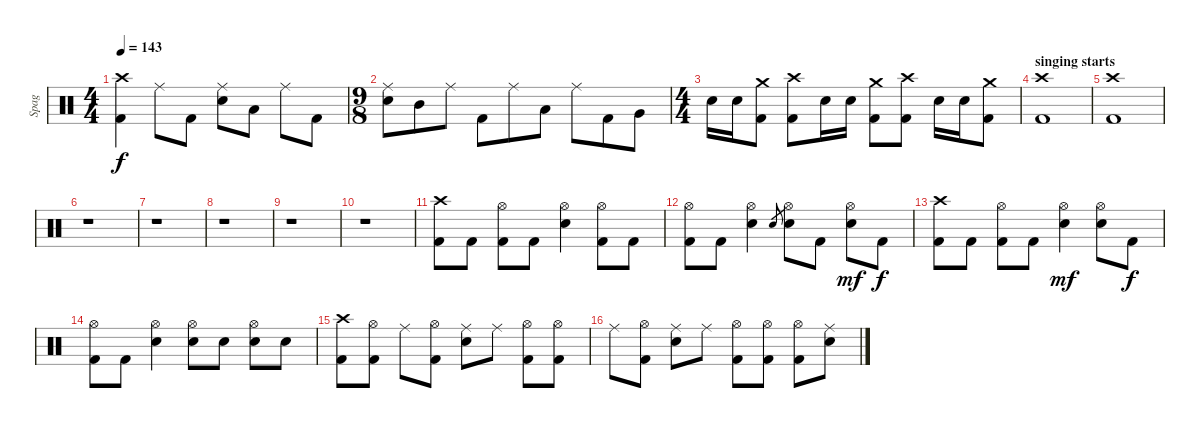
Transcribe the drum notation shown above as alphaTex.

\track ("Spag" "Spag") {instrument percussion}
\staff {score}
\articulation defaults
\ts (4 4)
\tempo 143
\clef neutral
\ks c
("Crash high (hit)" "Kick (hit) 2").4{dy f} "Ride (middle)".8 "Kick (hit) 2".8 ("Ride (middle)" "Electric Snare (hit)").8 "Low Tom (hit)".8 "Ride (middle)".8 "Kick (hit) 2".8 |
\ts (9 8)
("Ride (middle)" "Electric Snare (hit)").8 "Mid Tom (hit)".8 "Ride (middle)".8 "Kick (hit) 2".8 "Ride (middle)".8 "Low Tom (hit)".8 "Ride (middle)".8 "Kick (hit) 2".8 "Very Low Tom (hit)".8 |
\ts (4 4)
"Electric Snare (hit)".16 "Electric Snare (hit)".16 ("Crash medium (hit)" "Kick (hit) 2").8 ("Crash high (hit)" "Kick (hit) 2").8 "Electric Snare (hit)".16 "Electric Snare (hit)".16 ("Crash medium (hit)" "Kick (hit) 2").8 ("Crash high (hit)" "Kick (hit) 2").8 "Electric Snare (hit)".16 "Electric Snare (hit)".16 ("Crash medium (hit)" "Kick (hit) 2").8 |
\section ("" "singing starts")
("Crash high (hit)" "Kick (hit) 2").1 |
("Crash high (hit)" "Kick (hit) 2").1 |
r.1 |
r.1 |
r.1 |
r.1 |
r.1 |
("Crash high (hit)" "Kick (hit) 2").8 "Kick (hit) 2".8 ("Hi-Hat (open)" "Kick (hit) 2").8 "Kick (hit) 2".8 ("Hi-Hat (open)" "Electric Snare (hit)").4 ("Hi-Hat (open)" "Kick (hit) 2").8 "Kick (hit) 2".8 |
("Hi-Hat (open)" "Kick (hit) 2").8 "Kick (hit) 2".8 ("Hi-Hat (open)" "Electric Snare (hit)").4 "Electric Snare (hit)".8{gr} ("Hi-Hat (open)" "Electric Snare (hit)").8 "Kick (hit) 2".8 ("Hi-Hat (open)" "Electric Snare (hit)").8{dy mf} "Kick (hit) 2".8{dy f} |
("Crash high (hit)" "Kick (hit) 2").8 "Kick (hit) 2".8 ("Hi-Hat (open)" "Kick (hit) 2").8 "Kick (hit) 2".8 ("Hi-Hat (open)" "Electric Snare (hit)").4{dy mf} ("Hi-Hat (open)" "Electric Snare (hit)").8 "Kick (hit) 2".8{dy f} |
("Hi-Hat (open)" "Kick (hit) 2").8 "Kick (hit) 2".8 ("Hi-Hat (open)" "Electric Snare (hit)").4 ("Hi-Hat (open)" "Electric Snare (hit)").8 "Electric Snare (hit)".8 ("Hi-Hat (open)" "Electric Snare (hit)").8 "Electric Snare (hit)".8 |
("Crash high (hit)" "Kick (hit) 2").8 ("Hi-Hat (open)" "Kick (hit) 2").8 "Ride (middle)".8 ("Hi-Hat (open)" "Kick (hit) 2").8 ("Ride (middle)" "Electric Snare (hit)").8 "Ride (middle)".8 ("Hi-Hat (open)" "Kick (hit) 2").8 ("Hi-Hat (open)" "Kick (hit) 2").8 |
"Ride (middle)".8 ("Hi-Hat (open)" "Kick (hit) 2").8 ("Ride (middle)" "Electric Snare (hit)").8 "Ride (middle)".8 ("Hi-Hat (open)" "Kick (hit) 2").8 ("Hi-Hat (open)" "Kick (hit) 2").8 ("Hi-Hat (open)" "Kick (hit) 2").8 ("Ride (middle)" "Electric Snare (hit)").8
